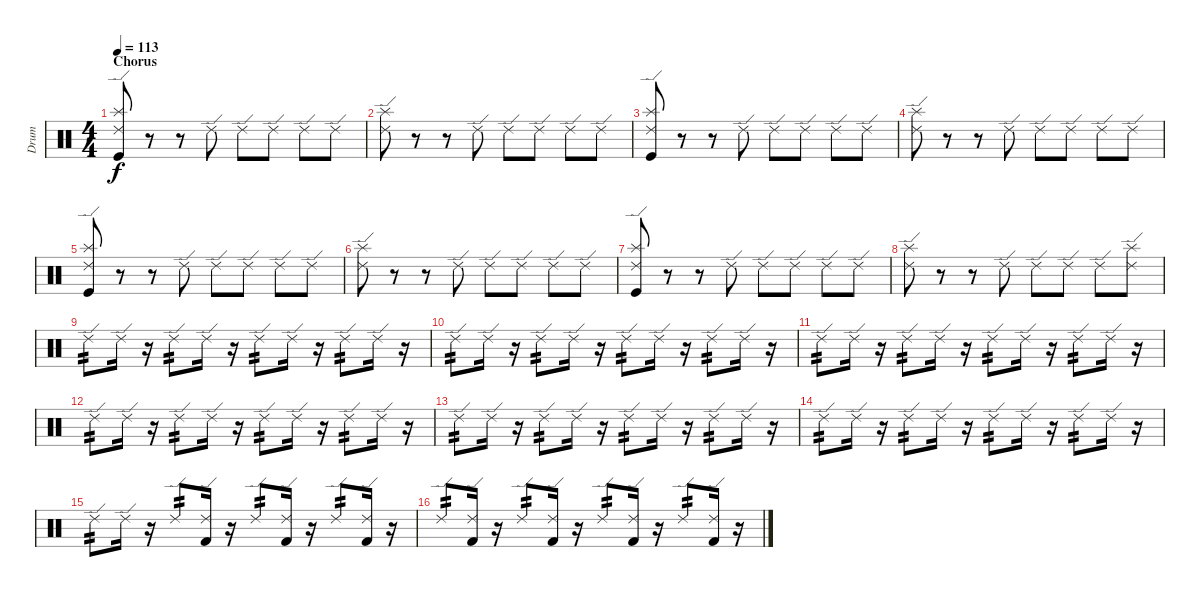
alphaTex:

\track ("Drum" "Drum") {instrument percussion}
\staff {score}
\articulation defaults
\ts (4 4)
\section ("" "Chorus")
\tempo 113
\clef neutral
\ks c
("Ride (edge) 2" "Splash (hit)" "Kick (hit)").8{dy f} r.8 r.8 "Ride (edge) 2".8 "Ride (edge) 2".8 "Ride (edge) 2".8 "Ride (edge) 2".8 "Ride (edge) 2".8 |
("Ride (edge) 2" "Splash (hit)").8 r.8 r.8 "Ride (edge) 2".8 "Ride (edge) 2".8 "Ride (edge) 2".8 "Ride (edge) 2".8 "Ride (edge) 2".8 |
("Ride (edge) 2" "Splash (hit)" "Kick (hit)").8 r.8 r.8 "Ride (edge) 2".8 "Ride (edge) 2".8 "Ride (edge) 2".8 "Ride (edge) 2".8 "Ride (edge) 2".8 |
("Ride (edge) 2" "Splash (hit)").8 r.8 r.8 "Ride (edge) 2".8 "Ride (edge) 2".8 "Ride (edge) 2".8 "Ride (edge) 2".8 "Ride (edge) 2".8 |
("Ride (edge) 2" "Splash (hit)" "Kick (hit)").8 r.8 r.8 "Ride (edge) 2".8 "Ride (edge) 2".8 "Ride (edge) 2".8 "Ride (edge) 2".8 "Ride (edge) 2".8 |
("Ride (edge) 2" "Splash (hit)").8 r.8 r.8 "Ride (edge) 2".8 "Ride (edge) 2".8 "Ride (edge) 2".8 "Ride (edge) 2".8 "Ride (edge) 2".8 |
("Ride (edge) 2" "Splash (hit)" "Kick (hit)").8 r.8 r.8 "Ride (edge) 2".8 "Ride (edge) 2".8 "Ride (edge) 2".8 "Ride (edge) 2".8 "Ride (edge) 2".8 |
("Ride (edge) 2" "Splash (hit)").8 r.8 r.8 "Ride (edge) 2".8 "Ride (edge) 2".8 "Ride (edge) 2".8 "Ride (edge) 2".8 ("Ride (edge) 2" "Splash (hit)").8 |
"Ride (edge) 2".8{tp 2} "Ride (edge) 2".16 r.16 "Ride (edge) 2".8{tp 2} "Ride (edge) 2".16 r.16 "Ride (edge) 2".8{tp 2} "Ride (edge) 2".16 r.16 "Ride (edge) 2".8{tp 2} "Ride (edge) 2".16 r.16 |
"Ride (edge) 2".8{tp 2} "Ride (edge) 2".16 r.16 "Ride (edge) 2".8{tp 2} "Ride (edge) 2".16 r.16 "Ride (edge) 2".8{tp 2} "Ride (edge) 2".16 r.16 "Ride (edge) 2".8{tp 2} "Ride (edge) 2".16 r.16 |
"Ride (edge) 2".8{tp 2} "Ride (edge) 2".16 r.16 "Ride (edge) 2".8{tp 2} "Ride (edge) 2".16 r.16 "Ride (edge) 2".8{tp 2} "Ride (edge) 2".16 r.16 "Ride (edge) 2".8{tp 2} "Ride (edge) 2".16 r.16 |
"Ride (edge) 2".8{tp 2} "Ride (edge) 2".16 r.16 "Ride (edge) 2".8{tp 2} "Ride (edge) 2".16 r.16 "Ride (edge) 2".8{tp 2} "Ride (edge) 2".16 r.16 "Ride (edge) 2".8{tp 2} "Ride (edge) 2".16 r.16 |
"Ride (edge) 2".8{tp 2} "Ride (edge) 2".16 r.16 "Ride (edge) 2".8{tp 2} "Ride (edge) 2".16 r.16 "Ride (edge) 2".8{tp 2} "Ride (edge) 2".16 r.16 "Ride (edge) 2".8{tp 2} "Ride (edge) 2".16 r.16 |
"Ride (edge) 2".8{tp 2} "Ride (edge) 2".16 r.16 "Ride (edge) 2".8{tp 2} "Ride (edge) 2".16 r.16 "Ride (edge) 2".8{tp 2} "Ride (edge) 2".16 r.16 "Ride (edge) 2".8{tp 2} "Ride (edge) 2".16 r.16 |
"Ride (edge) 2".8{tp 2} "Ride (edge) 2".16 r.16 "Ride (edge) 2".8{tp 2} ("Ride (edge) 2" "Kick (hit) 2").16 r.16 "Ride (edge) 2".8{tp 2} ("Ride (edge) 2" "Kick (hit) 2").16 r.16 "Ride (edge) 2".8{tp 2} ("Ride (edge) 2" "Kick (hit) 2").16 r.16 |
"Ride (edge) 2".8{tp 2} ("Ride (edge) 2" "Kick (hit) 2").16 r.16 "Ride (edge) 2".8{tp 2} ("Ride (edge) 2" "Kick (hit) 2").16 r.16 "Ride (edge) 2".8{tp 2} ("Ride (edge) 2" "Kick (hit) 2").16 r.16 "Ride (edge) 2".8{tp 2} ("Ride (edge) 2" "Kick (hit) 2").16 r.16
